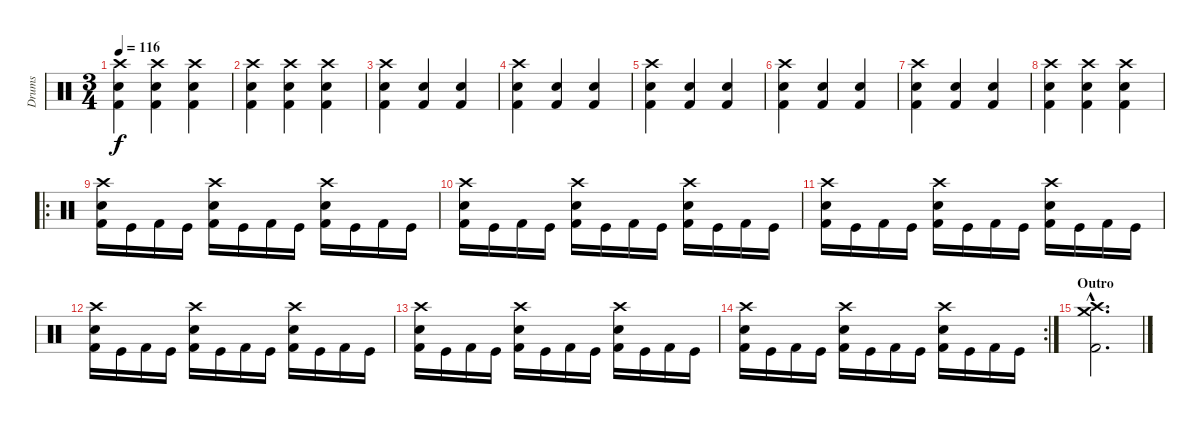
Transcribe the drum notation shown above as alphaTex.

\track ("Drums" "Drums") {instrument percussion}
\staff {score}
\articulation defaults
\ts (3 4)
\tempo 116
\clef neutral
\ks c
("Crash high (hit)" "Snare (hit) 2" "Kick (hit) 2").4{dy f} ("Crash high (hit)" "Snare (hit) 2" "Kick (hit) 2").4 ("Crash high (hit)" "Snare (hit) 2" "Kick (hit) 2").4 |
("Crash high (hit)" "Snare (hit) 2" "Kick (hit) 2").4 ("Crash high (hit)" "Snare (hit) 2" "Kick (hit) 2").4 ("Crash high (hit)" "Snare (hit) 2" "Kick (hit) 2").4 |
("Crash high (hit)" "Snare (hit) 2" "Kick (hit) 2").4 ("Snare (hit) 2" "Kick (hit) 2").4 ("Snare (hit) 2" "Kick (hit) 2").4 |
("Crash high (hit)" "Snare (hit) 2" "Kick (hit) 2").4 ("Snare (hit) 2" "Kick (hit) 2").4 ("Snare (hit) 2" "Kick (hit) 2").4 |
("Crash high (hit)" "Snare (hit) 2" "Kick (hit) 2").4 ("Snare (hit) 2" "Kick (hit) 2").4 ("Snare (hit) 2" "Kick (hit) 2").4 |
("Crash high (hit)" "Snare (hit) 2" "Kick (hit) 2").4 ("Snare (hit) 2" "Kick (hit) 2").4 ("Snare (hit) 2" "Kick (hit) 2").4 |
("Crash high (hit)" "Snare (hit) 2" "Kick (hit) 2").4 ("Snare (hit) 2" "Kick (hit) 2").4 ("Snare (hit) 2" "Kick (hit) 2").4 |
("Crash high (hit)" "Snare (hit) 2" "Kick (hit) 2").4 ("Crash high (hit)" "Snare (hit) 2" "Kick (hit) 2").4 ("Crash high (hit)" "Snare (hit) 2" "Kick (hit) 2").4 |
\ro
("Crash high (hit)" "Snare (hit) 2" "Kick (hit) 2").16 "Kick (hit)".16 "Kick (hit) 2".16 "Kick (hit)".16 ("Crash high (hit)" "Snare (hit) 2" "Kick (hit) 2").16 "Kick (hit)".16 "Kick (hit) 2".16 "Kick (hit)".16 ("Crash high (hit)" "Snare (hit) 2" "Kick (hit) 2").16 "Kick (hit)".16 "Kick (hit) 2".16 "Kick (hit)".16 |
("Crash high (hit)" "Snare (hit) 2" "Kick (hit) 2").16 "Kick (hit)".16 "Kick (hit) 2".16 "Kick (hit)".16 ("Crash high (hit)" "Snare (hit) 2" "Kick (hit) 2").16 "Kick (hit)".16 "Kick (hit) 2".16 "Kick (hit)".16 ("Crash high (hit)" "Snare (hit) 2" "Kick (hit) 2").16 "Kick (hit)".16 "Kick (hit) 2".16 "Kick (hit)".16 |
("Crash high (hit)" "Snare (hit) 2" "Kick (hit) 2").16 "Kick (hit)".16 "Kick (hit) 2".16 "Kick (hit)".16 ("Crash high (hit)" "Snare (hit) 2" "Kick (hit) 2").16 "Kick (hit)".16 "Kick (hit) 2".16 "Kick (hit)".16 ("Crash high (hit)" "Snare (hit) 2" "Kick (hit) 2").16 "Kick (hit)".16 "Kick (hit) 2".16 "Kick (hit)".16 |
("Crash high (hit)" "Snare (hit) 2" "Kick (hit) 2").16 "Kick (hit)".16 "Kick (hit) 2".16 "Kick (hit)".16 ("Crash high (hit)" "Snare (hit) 2" "Kick (hit) 2").16 "Kick (hit)".16 "Kick (hit) 2".16 "Kick (hit)".16 ("Crash high (hit)" "Snare (hit) 2" "Kick (hit) 2").16 "Kick (hit)".16 "Kick (hit) 2".16 "Kick (hit)".16 |
("Crash high (hit)" "Snare (hit) 2" "Kick (hit) 2").16 "Kick (hit)".16 "Kick (hit) 2".16 "Kick (hit)".16 ("Crash high (hit)" "Snare (hit) 2" "Kick (hit) 2").16 "Kick (hit)".16 "Kick (hit) 2".16 "Kick (hit)".16 ("Crash high (hit)" "Snare (hit) 2" "Kick (hit) 2").16 "Kick (hit)".16 "Kick (hit) 2".16 "Kick (hit)".16 |
\rc 2
("Crash high (hit)" "Snare (hit) 2" "Kick (hit) 2").16 "Kick (hit)".16 "Kick (hit) 2".16 "Kick (hit)".16 ("Crash high (hit)" "Snare (hit) 2" "Kick (hit) 2").16 "Kick (hit)".16 "Kick (hit) 2".16 "Kick (hit)".16 ("Crash high (hit)" "Snare (hit) 2" "Kick (hit) 2").16 "Kick (hit)".16 "Kick (hit) 2".16 "Kick (hit)".16 |
\section ("" "Outro")
("Crash high (hit)"{hac} "Crash medium (hit)"{hac} "Kick (hit) 2"{hac}).2{d}
